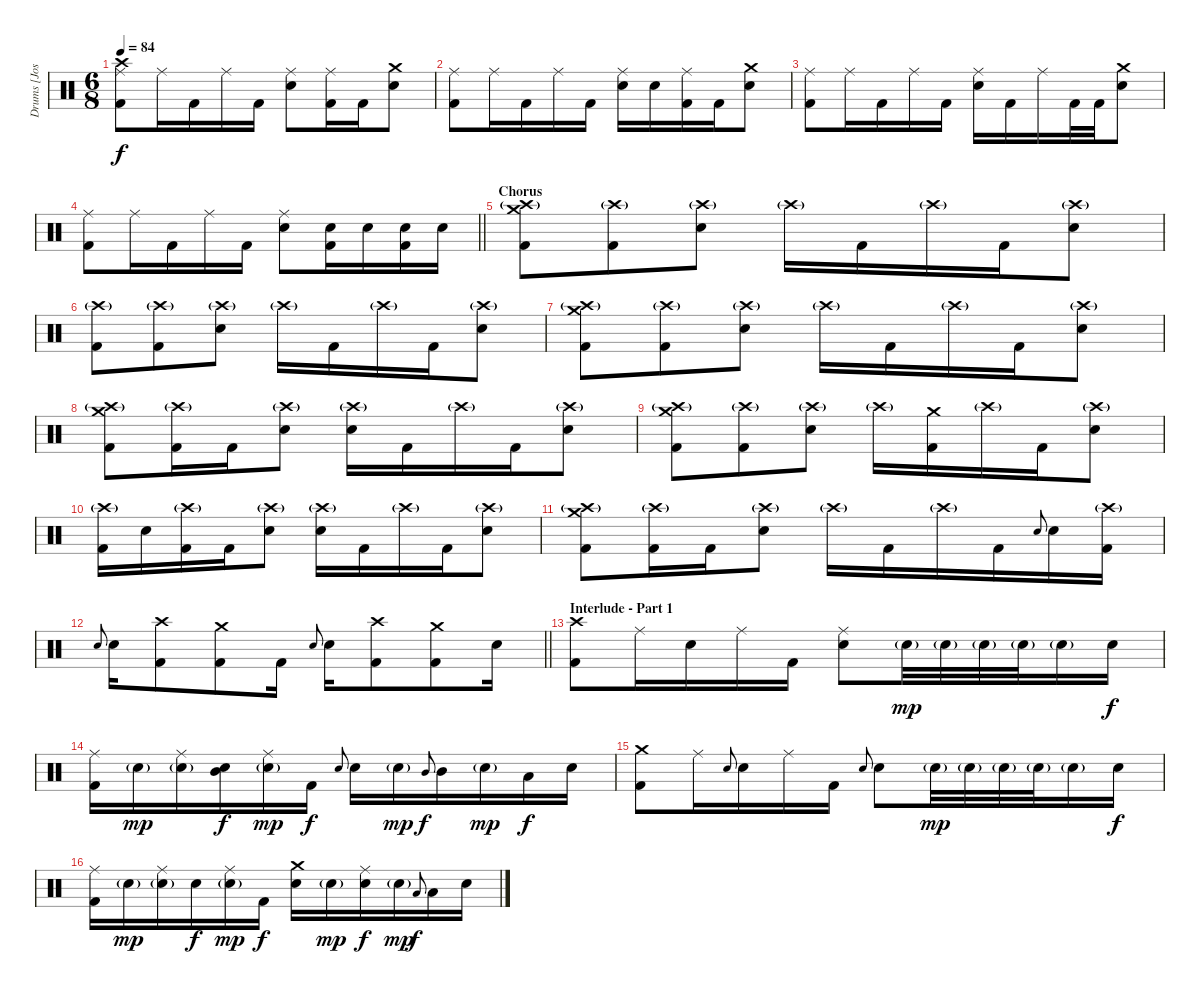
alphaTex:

\track ("Drums [Josh Freese]" "Drums [Jos") {instrument percussion}
\staff {score}
\articulation defaults
\ts (6 8)
\tempo 84
\clef neutral
\ks c
("Crash high (hit)" "Ride (middle)" "Kick (hit) 2").8{dy f} "Ride (middle)".16 "Kick (hit) 2".16 "Ride (middle)".16 "Kick (hit) 2".16 ("Ride (middle)" "Electric Snare (hit)").8 ("Ride (middle)" "Kick (hit) 2").16 "Kick (hit) 2".16 ("Crash medium (hit)" "Electric Snare (hit)").8 |
("Ride (middle)" "Kick (hit) 2").8 "Ride (middle)".16 "Kick (hit) 2".16 "Ride (middle)".16 "Kick (hit) 2".16 ("Ride (middle)" "Electric Snare (hit)").16 "Electric Snare (hit)".16 ("Ride (middle)" "Kick (hit) 2").16 "Kick (hit) 2".16 ("Crash medium (hit)" "Electric Snare (hit)").8 |
("Ride (middle)" "Kick (hit) 2").8 "Ride (middle)".16 "Kick (hit) 2".16 "Ride (middle)".16 "Kick (hit) 2".16 ("Ride (middle)" "Electric Snare (hit)").16 "Kick (hit) 2".16 "Ride (middle)".16 "Kick (hit) 2".32 "Kick (hit) 2".32 ("Crash medium (hit)" "Electric Snare (hit)").8 |
\barLineRight lightlight
("Ride (middle)" "Kick (hit) 2").8 "Ride (middle)".16 "Kick (hit) 2".16 "Ride (middle)".16 "Kick (hit) 2".16 ("Ride (middle)" "Electric Snare (hit)").8 ("Electric Snare (hit)" "Kick (hit) 2").16 "Electric Snare (hit)".16 ("Electric Snare (hit)" "Kick (hit) 2").16 "Electric Snare (hit)".16 |
\section ("" "Chorus")
("Crash medium (hit)" "Crash high (hit)"{g} "Kick (hit) 2").8 ("Crash high (hit)"{g} "Kick (hit) 2").8 ("Crash high (hit)"{g} "Electric Snare (hit)").8 "Crash high (hit)"{g}.16 "Kick (hit) 2".16 "Crash high (hit)"{g}.16 "Kick (hit) 2".16 ("Crash high (hit)"{g} "Electric Snare (hit)").8 |
("Crash high (hit)"{g} "Kick (hit) 2").8 ("Crash high (hit)"{g} "Kick (hit) 2").8 ("Crash high (hit)"{g} "Electric Snare (hit)").8 "Crash high (hit)"{g}.16 "Kick (hit) 2".16 "Crash high (hit)"{g}.16 "Kick (hit) 2".16 ("Crash high (hit)"{g} "Electric Snare (hit)").8 |
("Crash medium (hit)" "Crash high (hit)"{g} "Kick (hit) 2").8 ("Crash high (hit)"{g} "Kick (hit) 2").8 ("Crash high (hit)"{g} "Electric Snare (hit)").8 "Crash high (hit)"{g}.16 "Kick (hit) 2".16 "Crash high (hit)"{g}.16 "Kick (hit) 2".16 ("Crash high (hit)"{g} "Electric Snare (hit)").8 |
("Crash medium (hit)" "Crash high (hit)"{g} "Kick (hit) 2").8 ("Crash high (hit)"{g} "Kick (hit) 2").16 "Kick (hit) 2".16 ("Crash high (hit)"{g} "Electric Snare (hit)").8 ("Crash high (hit)"{g} "Electric Snare (hit)").16 "Kick (hit) 2".16 "Crash high (hit)"{g}.16 "Kick (hit) 2".16 ("Crash high (hit)"{g} "Electric Snare (hit)").8 |
("Crash medium (hit)" "Crash high (hit)"{g} "Kick (hit) 2").8 ("Crash high (hit)"{g} "Kick (hit) 2").8 ("Crash high (hit)"{g} "Electric Snare (hit)").8 "Crash high (hit)"{g}.16 ("Crash medium (hit)" "Kick (hit) 2").16 "Crash high (hit)"{g}.16 "Kick (hit) 2".16 ("Crash high (hit)"{g} "Electric Snare (hit)").8 |
("Crash high (hit)"{g} "Kick (hit) 2").16 "Electric Snare (hit)".16 ("Crash high (hit)"{g} "Kick (hit) 2").16 "Kick (hit) 2".16 ("Crash high (hit)"{g} "Electric Snare (hit)").8 ("Crash high (hit)"{g} "Electric Snare (hit)").16 "Kick (hit) 2".16 "Crash high (hit)"{g}.16 "Kick (hit) 2".16 ("Crash high (hit)"{g} "Electric Snare (hit)").8 |
("Crash medium (hit)" "Crash high (hit)"{g} "Kick (hit) 2").8 ("Crash high (hit)"{g} "Kick (hit) 2").16 "Kick (hit) 2".16 ("Crash high (hit)"{g} "Electric Snare (hit)").8 "Crash high (hit)"{g}.16 "Kick (hit) 2".16 "Crash high (hit)"{g}.16 "Kick (hit) 2".16 "Electric Snare (hit)".8{gr onbeat} "Electric Snare (hit)".16 ("Crash high (hit)"{g} "Kick (hit) 2").16 |
\barLineRight lightlight "Electric Snare (hit)".8{gr onbeat} "Electric Snare (hit)".16
("Crash high (hit)" "Kick (hit) 2").8 ("Crash medium (hit)" "Kick (hit) 2").8 "Kick (hit) 2".16 "Electric Snare (hit)".8{gr onbeat} "Electric Snare (hit)".16 ("Crash high (hit)" "Kick (hit) 2").8 ("Crash medium (hit)" "Kick (hit) 2").8 "Electric Snare (hit)".16 |
\section ("" "Interlude - Part 1")
("Crash high (hit)" "Kick (hit) 2").8 "Ride (middle)".16 "Electric Snare (hit)".16 "Ride (middle)".16 "Kick (hit) 2".16 ("Ride (middle)" "Electric Snare (hit)").8 "Electric Snare (hit)"{g}.32{dy mp} "Electric Snare (hit)"{g}.32 "Electric Snare (hit)"{g}.32 "Electric Snare (hit)"{g}.32 "Electric Snare (hit)"{g}.16 "Electric Snare (hit)".16{dy f} |
("Ride (middle)" "Kick (hit) 2").16 "Electric Snare (hit)"{g}.16{dy mp} ("Ride (middle)" "Electric Snare (hit)"{g}).16 ("Mid Tom (hit)" "Electric Snare (hit)").16{dy f} ("Ride (middle)" "Electric Snare (hit)"{g}).16{dy mp} "Kick (hit) 2".16{dy f} "Electric Snare (hit)".8{gr onbeat} "Electric Snare (hit)".16 "Electric Snare (hit)"{g}.16{dy mp} "Mid Tom (hit)".8{gr onbeat dy f} "Mid Tom (hit)".16 "Electric Snare (hit)"{g}.16{dy mp} "Low Tom (hit)".16{dy f} "Electric Snare (hit)".16 |
("Crash medium (hit)" "Kick (hit) 2").8 "Ride (middle)".16 "Electric Snare (hit)".8{gr onbeat} "Electric Snare (hit)".16 "Ride (middle)".16 "Kick (hit) 2".16 "Electric Snare (hit)".8{gr onbeat} "Electric Snare (hit)".8 "Electric Snare (hit)"{g}.32{dy mp} "Electric Snare (hit)"{g}.32 "Electric Snare (hit)"{g}.32 "Electric Snare (hit)"{g}.32 "Electric Snare (hit)"{g}.16 "Electric Snare (hit)".16{dy f} |
("Ride (middle)" "Kick (hit) 2").16 "Electric Snare (hit)"{g}.16{dy mp} ("Ride (middle)" "Electric Snare (hit)"{g}).16 "Electric Snare (hit)".16{dy f} ("Ride (middle)" "Electric Snare (hit)"{g}).16{dy mp} "Kick (hit) 2".16{dy f} ("Crash medium (hit)" "Electric Snare (hit)").16 "Electric Snare (hit)"{g}.16{dy mp} ("Ride (middle)" "Electric Snare (hit)").16{dy f} "Electric Snare (hit)"{g}.16{dy mp} "Low Tom (hit)".8{gr onbeat dy f} "Low Tom (hit)".16 "Electric Snare (hit)".16
